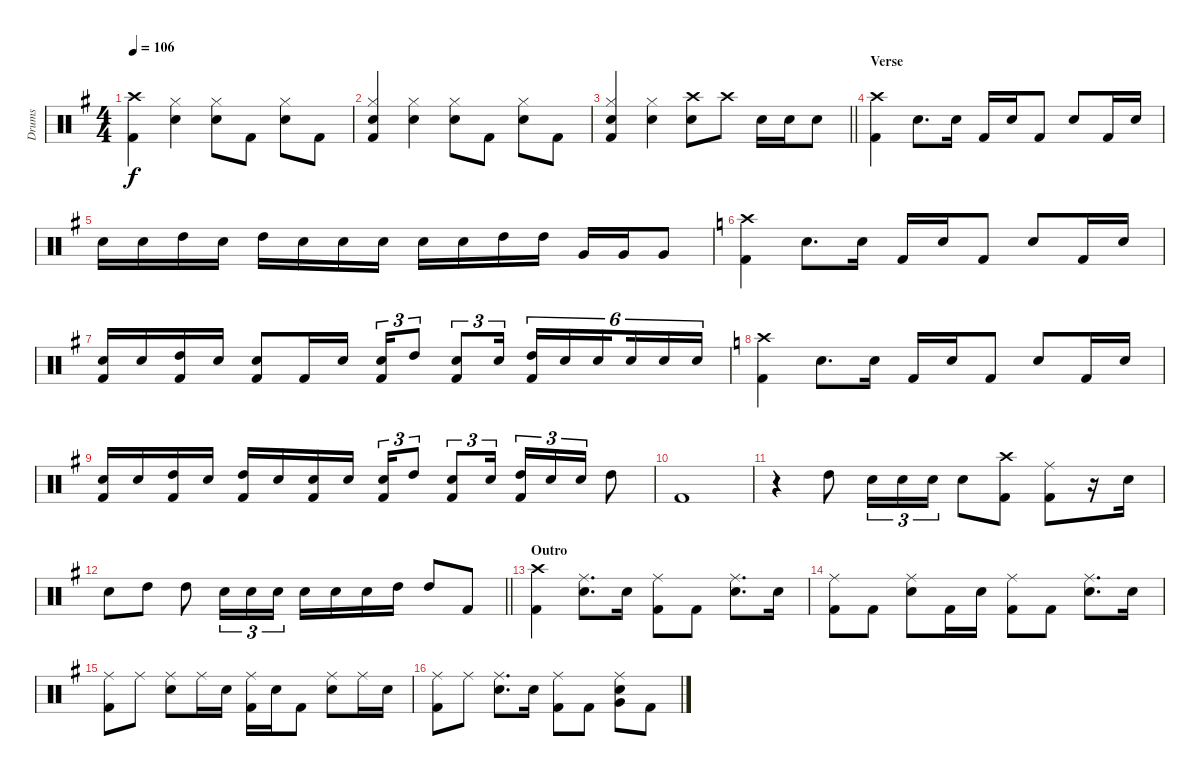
\track ("Drums" "Drums") {instrument percussion}
\staff {score}
\articulation defaults
\ts (4 4)
\tempo 106
\clef neutral
\ks g
("Crash high (hit)" "Kick (hit) 2").4{dy f} ("Hi-Hat (closed)" "Snare (hit) 2").4 ("Hi-Hat (closed)" "Snare (hit) 2").8 "Kick (hit) 2".8 ("Hi-Hat (closed)" "Snare (hit) 2").8 "Kick (hit) 2".8 |
("Hi-Hat (closed)" "Snare (hit) 2" "Kick (hit) 2").4 ("Hi-Hat (closed)" "Snare (hit) 2").4 ("Hi-Hat (closed)" "Snare (hit) 2").8 "Kick (hit) 2".8 ("Hi-Hat (closed)" "Snare (hit) 2").8 "Kick (hit) 2".8 |
\barLineRight lightlight
("Hi-Hat (closed)" "Snare (hit) 2" "Kick (hit) 2").4 ("Hi-Hat (closed)" "Snare (hit) 2").4 ("Crash high (hit)" "Snare (hit) 2").8 "Crash high (hit)".8 "Snare (hit) 2".16 "Snare (hit) 2".16 "Snare (hit) 2".8 |
\section ("" "Verse")
("Crash high (hit)" "Kick (hit) 2").4 "Snare (hit) 2".8{d} "Snare (hit) 2".16 "Kick (hit) 2".16 "Snare (hit) 2".16 "Kick (hit) 2".8 "Snare (hit) 2".8 "Kick (hit) 2".16 "Snare (hit) 2".16 |
"Snare (hit) 2".16 "Snare (hit) 2".16 "High Tom (hit)".16 "Snare (hit) 2".16 "High Tom (hit)".16 "Snare (hit) 2".16 "Snare (hit) 2".16 "Snare (hit) 2".16 "Snare (hit) 2".16 "Snare (hit) 2".16 "High Tom (hit)".16 "High Tom (hit)".16 "Very Low Tom (hit)".16 "Very Low Tom (hit)".16 "Very Low Tom (hit)".8 |
\ks c
("Crash high (hit)" "Kick (hit) 2").4 "Snare (hit) 2".8{d} "Snare (hit) 2".16 "Kick (hit) 2".16 "Snare (hit) 2".16 "Kick (hit) 2".8 "Snare (hit) 2".8 "Kick (hit) 2".16 "Snare (hit) 2".16 |
\ks g
("Snare (hit) 2" "Kick (hit) 2").16 "Snare (hit) 2".16 ("High Tom (hit)" "Kick (hit) 2").16 "Snare (hit) 2".16 ("Snare (hit) 2" "Kick (hit) 2").8 "Kick (hit) 2".16 "Snare (hit) 2".16 ("Snare (hit) 2" "Kick (hit) 2").16{tu (3 2)} "High Tom (hit)".8{tu (3 2)} ("Snare (hit) 2" "Kick (hit) 2").8{tu (3 2)} "Snare (hit) 2".16{tu (3 2)} ("High Tom (hit)" "Kick (hit) 2").16{tu (6 4)} "Snare (hit) 2".16{tu (6 4)} "Snare (hit) 2".16{tu (6 4) beam splitsecondary} "Snare (hit) 2".16{tu (6 4)} "Snare (hit) 2".16{tu (6 4)} "Snare (hit) 2".16{tu (6 4)} |
\ks c
("Crash high (hit)" "Kick (hit) 2").4 "Snare (hit) 2".8{d} "Snare (hit) 2".16 "Kick (hit) 2".16 "Snare (hit) 2".16 "Kick (hit) 2".8 "Snare (hit) 2".8 "Kick (hit) 2".16 "Snare (hit) 2".16 |
\ks g
("Snare (hit) 2" "Kick (hit) 2").16 "Snare (hit) 2".16 ("High Tom (hit)" "Kick (hit) 2").16 "Snare (hit) 2".16 ("High Tom (hit)" "Kick (hit) 2").16 "Snare (hit) 2".16 ("Snare (hit) 2" "Kick (hit) 2").16 "Snare (hit) 2".16 ("Snare (hit) 2" "Kick (hit) 2").16{tu (3 2)} "High Tom (hit)".8{tu (3 2)} ("Snare (hit) 2" "Kick (hit) 2").8{tu (3 2)} "Snare (hit) 2".16{tu (3 2)} ("High Tom (hit)" "Kick (hit) 2").16{tu (3 2)} "Snare (hit) 2".16{tu (3 2)} "Snare (hit) 2".16{tu (3 2)} "High Tom (hit)".8 |
"Kick (hit) 2".1 |
r.4 "High Tom (hit)".8 "Snare (hit) 2".16{tu (3 2)} "Snare (hit) 2".16{tu (3 2)} "Snare (hit) 2".16{tu (3 2)} "Snare (hit) 2".8 ("Crash high (hit)" "Kick (hit) 2").8 ("Ride (middle)" "Kick (hit) 2").8 r.16 "Snare (hit) 2".16 |
\barLineRight lightlight "Snare (hit) 2".8 "High Tom (hit)".8 "High Tom (hit)".8 "Snare (hit) 2".16{tu (3 2)} "Snare (hit) 2".16{tu (3 2)} "Snare (hit) 2".16{tu (3 2)} "Snare (hit) 2".16 "Snare (hit) 2".16 "Snare (hit) 2".16 "High Tom (hit)".16 "High Tom (hit)".8 "Kick (hit) 2".8
|
\section ("" "Outro")
("Crash high (hit)" "Kick (hit) 2").4 ("Ride (middle)" "Snare (hit) 2").8{d} "Snare (hit) 2".16 ("Ride (middle)" "Kick (hit) 2").8 "Kick (hit) 2".8 ("Ride (middle)" "Snare (hit) 2").8{d} "Snare (hit) 2".16 |
("Ride (middle)" "Kick (hit) 2").8 "Kick (hit) 2".8 ("Ride (middle)" "Snare (hit) 2").8 "Kick (hit) 2".16 "Snare (hit) 2".16 ("Ride (middle)" "Kick (hit) 2").8 "Kick (hit) 2".8 ("Ride (middle)" "Snare (hit) 2").8{d} "Snare (hit) 2".16 |
("Ride (middle)" "Kick (hit) 2").8 "Ride (middle)".8 ("Ride (middle)" "Snare (hit) 2").8 "Ride (middle)".16 "Snare (hit) 2".16 ("Ride (middle)" "Kick (hit) 2").16 "Snare (hit) 2".16 "Kick (hit) 2".8 ("Ride (middle)" "Snare (hit) 2").8 "Ride (middle)".16 "Snare (hit) 2".16 |
("Ride (middle)" "Kick (hit) 2").8 "Ride (middle)".8 ("Ride (middle)" "Snare (hit) 2").8{d} "Snare (hit) 2".16 ("Ride (middle)" "Kick (hit) 2").8 "Kick (hit) 2".8 ("Ride (middle)" "Snare (hit) 2" "Very Low Tom (hit)").8 "Kick (hit) 2".8
